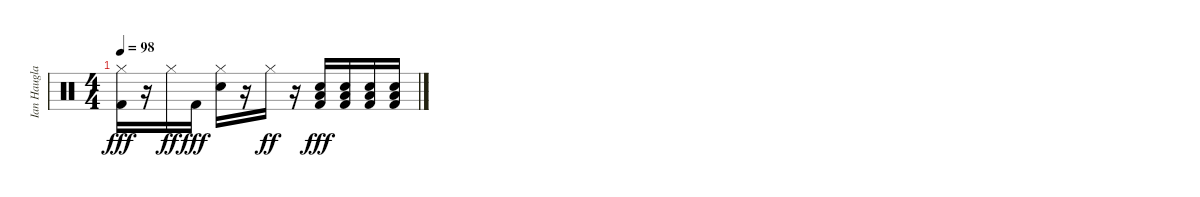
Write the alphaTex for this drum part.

\track ("Ian Haugland" "Ian Haugla") {instrument percussion}
\staff {score}
\articulation defaults
\ts (4 4)
\tempo 98
\clef neutral
\ks c
("Hi-Hat (closed)" "Kick (hit) 2").16{dy fff} r.16 "Hi-Hat (closed)".16{dy ff} "Kick (hit) 2".16{dy fff} ("Hi-Hat (closed)" "Electric Snare (hit)").16 r.16 "Hi-Hat (closed)".16{dy ff} r.16 ("Low Floor Tom (hit)" "Electric Snare (hit)" "Kick (hit) 2").16{dy fff} ("Low Floor Tom (hit)" "Electric Snare (hit)" "Kick (hit) 2").16 ("Low Floor Tom (hit)" "Electric Snare (hit)" "Kick (hit) 2").16 ("Low Floor Tom (hit)" "Electric Snare (hit)" "Kick (hit) 2").16
